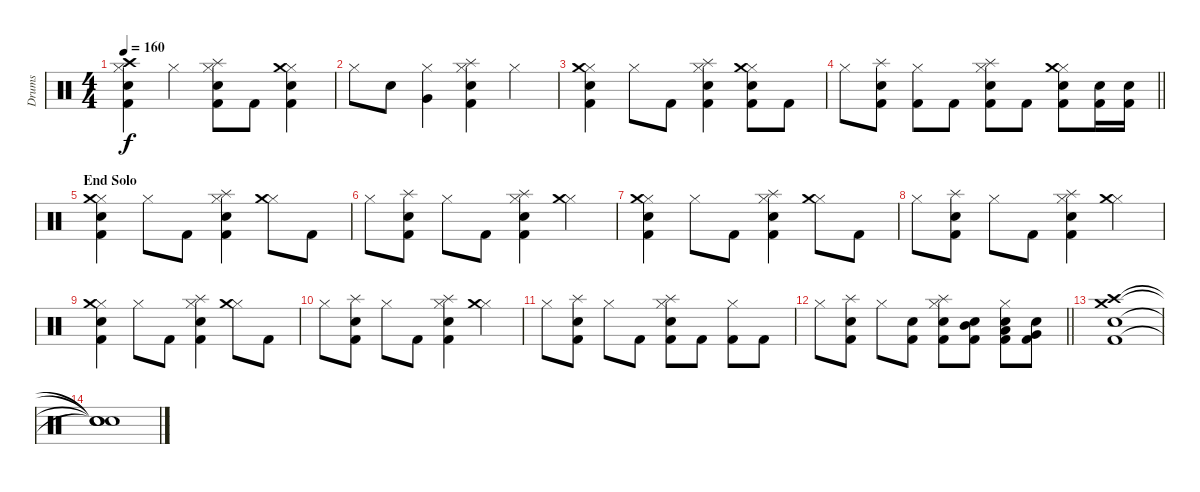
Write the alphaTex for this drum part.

\track ("Drums" "Drums") {instrument percussion}
\staff {score}
\articulation defaults
\ts (4 4)
\tempo 160
\clef neutral
\ks c
("Hi-Hat (closed)" "Crash high (hit)" "Snare (hit) 2" "Kick (hit) 2").4{dy f} "Hi-Hat (closed)".4 ("Hi-Hat (closed)" "Splash (hit)" "Snare (hit) 2" "Kick (hit) 2").8 "Kick (hit) 2".8 ("Hi-Hat (closed)" "Crash medium (hit)" "Snare (hit) 2" "Kick (hit) 2").4 |
"Hi-Hat (closed)".8 "Snare (hit) 2".8 ("Hi-Hat (closed)" "Very Low Tom (hit)").4 ("Hi-Hat (closed)" "Splash (hit)" "Snare (hit) 2" "Kick (hit) 2").4 "Hi-Hat (closed)".4 |
("Hi-Hat (closed)" "Crash medium (hit)" "Snare (hit) 2" "Kick (hit) 2").4 "Hi-Hat (closed)".8 "Kick (hit) 2".8 ("Hi-Hat (closed)" "Splash (hit)" "Snare (hit) 2" "Kick (hit) 2").4 ("Hi-Hat (closed)" "Crash medium (hit)" "Snare (hit) 2" "Kick (hit) 2").8 "Kick (hit) 2".8 |
\barLineRight lightlight "Hi-Hat (closed)".8
("Splash (hit)" "Snare (hit) 2" "Kick (hit) 2").8 ("Hi-Hat (closed)" "Kick (hit) 2").8 "Kick (hit) 2".8 ("Hi-Hat (closed)" "Splash (hit)" "Snare (hit) 2" "Kick (hit) 2").8 "Kick (hit) 2".8 ("Hi-Hat (closed)" "Crash medium (hit)" "Electric Snare (hit)" "Kick (hit) 2").8 ("Electric Snare (hit)" "Kick (hit) 2").16 ("Electric Snare (hit)" "Kick (hit) 2").16 |
\section ("" "End Solo")
("Hi-Hat (closed)" "Crash medium (hit)" "Snare (hit) 2" "Kick (hit) 2").4 "Hi-Hat (closed)".8 "Kick (hit) 2".8 ("Hi-Hat (closed)" "Splash (hit)" "Snare (hit) 2" "Kick (hit) 2").4 ("Hi-Hat (closed)" "Crash medium (hit)").8 "Kick (hit) 2".8 |
"Hi-Hat (closed)".8 ("Splash (hit)" "Snare (hit) 2" "Kick (hit) 2").8 "Hi-Hat (closed)".8 "Kick (hit) 2".8 ("Hi-Hat (closed)" "Splash (hit)" "Snare (hit) 2" "Kick (hit) 2").4 ("Hi-Hat (closed)" "Crash medium (hit)").4 |
("Hi-Hat (closed)" "Crash medium (hit)" "Snare (hit) 2" "Kick (hit) 2").4 "Hi-Hat (closed)".8 "Kick (hit) 2".8 ("Hi-Hat (closed)" "Splash (hit)" "Snare (hit) 2" "Kick (hit) 2").4 ("Hi-Hat (closed)" "Crash medium (hit)").8 "Kick (hit) 2".8 |
"Hi-Hat (closed)".8 ("Splash (hit)" "Snare (hit) 2" "Kick (hit) 2").8 "Hi-Hat (closed)".8 "Kick (hit) 2".8 ("Hi-Hat (closed)" "Splash (hit)" "Snare (hit) 2" "Kick (hit) 2").4 ("Hi-Hat (closed)" "Crash medium (hit)").4 |
("Hi-Hat (closed)" "Crash medium (hit)" "Snare (hit) 2" "Kick (hit) 2").4 "Hi-Hat (closed)".8 "Kick (hit) 2".8 ("Hi-Hat (closed)" "Splash (hit)" "Snare (hit) 2" "Kick (hit) 2").4 ("Hi-Hat (closed)" "Crash medium (hit)").8 "Kick (hit) 2".8 |
"Hi-Hat (closed)".8 ("Splash (hit)" "Snare (hit) 2" "Kick (hit) 2").8 "Hi-Hat (closed)".8 "Kick (hit) 2".8 ("Hi-Hat (closed)" "Splash (hit)" "Snare (hit) 2" "Kick (hit) 2").4 ("Hi-Hat (closed)" "Crash medium (hit)").4 |
"Hi-Hat (closed)".8 ("Splash (hit)" "Snare (hit) 2" "Kick (hit) 2").8 "Hi-Hat (closed)".8 "Kick (hit) 2".8 ("Hi-Hat (closed)" "Splash (hit)" "Snare (hit) 2" "Kick (hit) 2").8 "Kick (hit) 2".8 ("Hi-Hat (closed)" "Kick (hit) 2").8 "Kick (hit) 2".8 |
\barLineRight lightlight "Hi-Hat (closed)".8
("Splash (hit)" "Snare (hit) 2" "Kick (hit) 2").8 "Hi-Hat (closed)".8 ("Electric Snare (hit)" "Kick (hit) 2").8 ("Hi-Hat (closed)" "Splash (hit)" "Electric Snare (hit)" "Kick (hit) 2").8 ("Mid Tom (hit)" "Electric Snare (hit)" "Kick (hit) 2").8 ("Hi-Hat (closed)" "Low Tom (hit)" "Electric Snare (hit)" "Kick (hit) 2").8 ("Very Low Tom (hit)" "Electric Snare (hit)" "Kick (hit) 2").8 |
("Crash high (hit)" "Crash medium (hit)" "Snare (hit) 2" "Kick (hit) 2").1 |
("Snare (hit)"{t} "Snare (hit)"{t} "Snare (hit)"{t} "Snare (hit)"{t}).1
